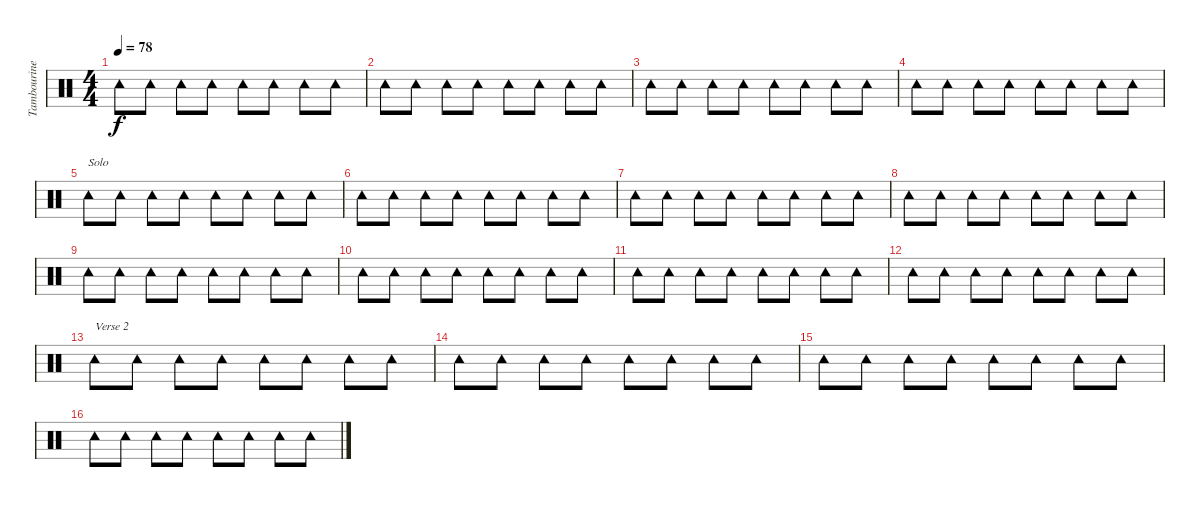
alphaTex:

\track ("Tambourine" "Tambourine") {instrument percussion}
\staff {score}
\articulation defaults
\ts (4 4)
\tempo 78
\clef neutral
\ks c "Tambourine (hit)".8{dy f} "Tambourine (hit)".8 "Tambourine (hit)".8 "Tambourine (hit)".8 "Tambourine (hit)".8 "Tambourine (hit)".8 "Tambourine (hit)".8 "Tambourine (hit)".8
|
"Tambourine (hit)".8 "Tambourine (hit)".8 "Tambourine (hit)".8 "Tambourine (hit)".8 "Tambourine (hit)".8 "Tambourine (hit)".8 "Tambourine (hit)".8 "Tambourine (hit)".8 |
"Tambourine (hit)".8 "Tambourine (hit)".8 "Tambourine (hit)".8 "Tambourine (hit)".8 "Tambourine (hit)".8 "Tambourine (hit)".8 "Tambourine (hit)".8 "Tambourine (hit)".8 |
"Tambourine (hit)".8 "Tambourine (hit)".8 "Tambourine (hit)".8 "Tambourine (hit)".8 "Tambourine (hit)".8 "Tambourine (hit)".8 "Tambourine (hit)".8 "Tambourine (hit)".8 |
"Tambourine (hit)".8{txt "Solo"} "Tambourine (hit)".8 "Tambourine (hit)".8 "Tambourine (hit)".8 "Tambourine (hit)".8 "Tambourine (hit)".8 "Tambourine (hit)".8 "Tambourine (hit)".8 |
"Tambourine (hit)".8 "Tambourine (hit)".8 "Tambourine (hit)".8 "Tambourine (hit)".8 "Tambourine (hit)".8 "Tambourine (hit)".8 "Tambourine (hit)".8 "Tambourine (hit)".8 |
"Tambourine (hit)".8 "Tambourine (hit)".8 "Tambourine (hit)".8 "Tambourine (hit)".8 "Tambourine (hit)".8 "Tambourine (hit)".8 "Tambourine (hit)".8 "Tambourine (hit)".8 |
"Tambourine (hit)".8 "Tambourine (hit)".8 "Tambourine (hit)".8 "Tambourine (hit)".8 "Tambourine (hit)".8 "Tambourine (hit)".8 "Tambourine (hit)".8 "Tambourine (hit)".8 |
"Tambourine (hit)".8 "Tambourine (hit)".8 "Tambourine (hit)".8 "Tambourine (hit)".8 "Tambourine (hit)".8 "Tambourine (hit)".8 "Tambourine (hit)".8 "Tambourine (hit)".8 |
"Tambourine (hit)".8 "Tambourine (hit)".8 "Tambourine (hit)".8 "Tambourine (hit)".8 "Tambourine (hit)".8 "Tambourine (hit)".8 "Tambourine (hit)".8 "Tambourine (hit)".8 |
"Tambourine (hit)".8 "Tambourine (hit)".8 "Tambourine (hit)".8 "Tambourine (hit)".8 "Tambourine (hit)".8 "Tambourine (hit)".8 "Tambourine (hit)".8 "Tambourine (hit)".8 |
"Tambourine (hit)".8 "Tambourine (hit)".8 "Tambourine (hit)".8 "Tambourine (hit)".8 "Tambourine (hit)".8 "Tambourine (hit)".8 "Tambourine (hit)".8 "Tambourine (hit)".8 |
"Tambourine (hit)".8{txt "Verse 2"} "Tambourine (hit)".8 "Tambourine (hit)".8 "Tambourine (hit)".8 "Tambourine (hit)".8 "Tambourine (hit)".8 "Tambourine (hit)".8 "Tambourine (hit)".8 |
"Tambourine (hit)".8 "Tambourine (hit)".8 "Tambourine (hit)".8 "Tambourine (hit)".8 "Tambourine (hit)".8 "Tambourine (hit)".8 "Tambourine (hit)".8 "Tambourine (hit)".8 |
"Tambourine (hit)".8 "Tambourine (hit)".8 "Tambourine (hit)".8 "Tambourine (hit)".8 "Tambourine (hit)".8 "Tambourine (hit)".8 "Tambourine (hit)".8 "Tambourine (hit)".8 |
"Tambourine (hit)".8 "Tambourine (hit)".8 "Tambourine (hit)".8 "Tambourine (hit)".8 "Tambourine (hit)".8 "Tambourine (hit)".8 "Tambourine (hit)".8 "Tambourine (hit)".8
